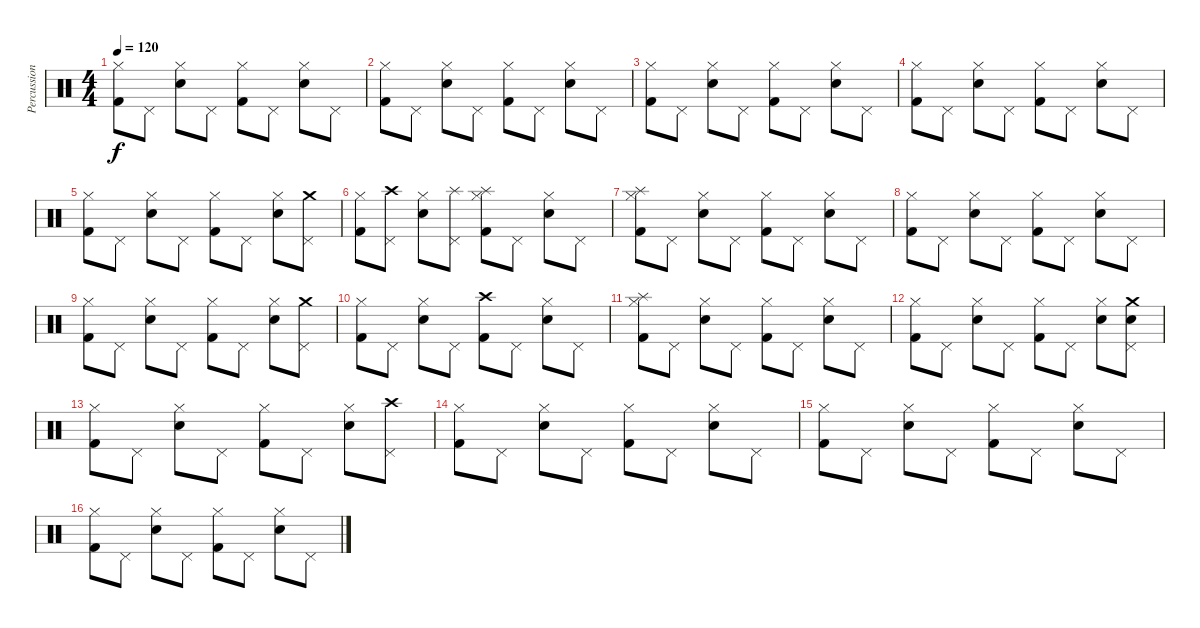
\track ("Percussion" "Percussion") {instrument percussion}
\staff {score}
\articulation defaults
\ts (4 4)
\tempo 120
\clef neutral
\ks c
("Kick (hit) 2" "Hi-Hat (closed)").8{dy f} "Pedal Hi-Hat (hit)".8 ("Snare (hit) 2" "Hi-Hat (closed)").8 "Pedal Hi-Hat (hit)".8 ("Kick (hit) 2" "Hi-Hat (closed)").8 "Pedal Hi-Hat (hit)".8 ("Snare (hit) 2" "Hi-Hat (closed)").8 "Pedal Hi-Hat (hit)".8 |
("Kick (hit) 2" "Hi-Hat (closed)").8 "Pedal Hi-Hat (hit)".8 ("Snare (hit) 2" "Hi-Hat (closed)").8 "Pedal Hi-Hat (hit)".8 ("Kick (hit) 2" "Hi-Hat (closed)").8 "Pedal Hi-Hat (hit)".8 ("Snare (hit) 2" "Hi-Hat (closed)").8 "Pedal Hi-Hat (hit)".8 |
("Kick (hit) 2" "Hi-Hat (closed)").8 "Pedal Hi-Hat (hit)".8 ("Snare (hit) 2" "Hi-Hat (closed)").8 "Pedal Hi-Hat (hit)".8 ("Kick (hit) 2" "Hi-Hat (closed)").8 "Pedal Hi-Hat (hit)".8 ("Snare (hit) 2" "Hi-Hat (closed)").8 "Pedal Hi-Hat (hit)".8 |
("Kick (hit) 2" "Hi-Hat (closed)").8 "Pedal Hi-Hat (hit)".8 ("Snare (hit) 2" "Hi-Hat (closed)").8 "Pedal Hi-Hat (hit)".8 ("Kick (hit) 2" "Hi-Hat (closed)").8 "Pedal Hi-Hat (hit)".8 ("Snare (hit) 2" "Hi-Hat (closed)").8 "Pedal Hi-Hat (hit)".8 |
("Kick (hit) 2" "Hi-Hat (closed)").8 "Pedal Hi-Hat (hit)".8 ("Snare (hit) 2" "Hi-Hat (closed)").8 "Pedal Hi-Hat (hit)".8 ("Kick (hit) 2" "Hi-Hat (closed)").8 "Pedal Hi-Hat (hit)".8 ("Snare (hit) 2" "Hi-Hat (closed)").8 ("Pedal Hi-Hat (hit)" "Crash medium (hit)").8 |
("Kick (hit) 2" "Hi-Hat (closed)").8 ("Pedal Hi-Hat (hit)" "Crash high (hit)").8 ("Snare (hit) 2" "Hi-Hat (closed)").8 ("Pedal Hi-Hat (hit)" "Splash (hit)").8 ("Kick (hit) 2" "Hi-Hat (closed)" "Splash (hit)").8 "Pedal Hi-Hat (hit)".8 ("Snare (hit) 2" "Hi-Hat (closed)").8 "Pedal Hi-Hat (hit)".8 |
("Kick (hit) 2" "Hi-Hat (closed)" "Splash (hit)").8 "Pedal Hi-Hat (hit)".8 ("Snare (hit) 2" "Hi-Hat (closed)").8 "Pedal Hi-Hat (hit)".8 ("Kick (hit) 2" "Hi-Hat (closed)").8 "Pedal Hi-Hat (hit)".8 ("Snare (hit) 2" "Hi-Hat (closed)").8 "Pedal Hi-Hat (hit)".8 |
("Kick (hit) 2" "Hi-Hat (closed)").8 "Pedal Hi-Hat (hit)".8 ("Snare (hit) 2" "Hi-Hat (closed)").8 "Pedal Hi-Hat (hit)".8 ("Kick (hit) 2" "Hi-Hat (closed)").8 "Pedal Hi-Hat (hit)".8 ("Snare (hit) 2" "Hi-Hat (closed)").8 "Pedal Hi-Hat (hit)".8 |
("Kick (hit) 2" "Hi-Hat (closed)").8 "Pedal Hi-Hat (hit)".8 ("Snare (hit) 2" "Hi-Hat (closed)").8 "Pedal Hi-Hat (hit)".8 ("Kick (hit) 2" "Hi-Hat (closed)").8 "Pedal Hi-Hat (hit)".8 ("Snare (hit) 2" "Hi-Hat (closed)").8 ("Pedal Hi-Hat (hit)" "Crash medium (hit)").8 |
("Kick (hit) 2" "Hi-Hat (closed)").8 "Pedal Hi-Hat (hit)".8 ("Snare (hit) 2" "Hi-Hat (closed)").8 "Pedal Hi-Hat (hit)".8 ("Kick (hit) 2" "Crash high (hit)").8 "Pedal Hi-Hat (hit)".8 ("Snare (hit) 2" "Hi-Hat (closed)").8 "Pedal Hi-Hat (hit)".8 |
("Kick (hit) 2" "Hi-Hat (closed)" "Splash (hit)").8 "Pedal Hi-Hat (hit)".8 ("Snare (hit) 2" "Hi-Hat (closed)").8 "Pedal Hi-Hat (hit)".8 ("Kick (hit) 2" "Hi-Hat (closed)").8 "Pedal Hi-Hat (hit)".8 ("Snare (hit) 2" "Hi-Hat (closed)").8 "Pedal Hi-Hat (hit)".8 |
("Kick (hit) 2" "Hi-Hat (closed)").8 "Pedal Hi-Hat (hit)".8 ("Snare (hit) 2" "Hi-Hat (closed)").8 "Pedal Hi-Hat (hit)".8 ("Kick (hit) 2" "Hi-Hat (closed)").8 "Pedal Hi-Hat (hit)".8 ("Snare (hit) 2" "Hi-Hat (closed)").8 ("Pedal Hi-Hat (hit)" "Crash medium (hit)" "Snare (hit) 2").8 |
("Kick (hit) 2" "Hi-Hat (closed)").8 "Pedal Hi-Hat (hit)".8 ("Snare (hit) 2" "Hi-Hat (closed)").8 "Pedal Hi-Hat (hit)".8 ("Kick (hit) 2" "Hi-Hat (closed)").8 "Pedal Hi-Hat (hit)".8 ("Snare (hit) 2" "Hi-Hat (closed)").8 ("Pedal Hi-Hat (hit)" "Crash high (hit)").8 |
("Kick (hit) 2" "Hi-Hat (closed)").8 "Pedal Hi-Hat (hit)".8 ("Snare (hit) 2" "Hi-Hat (closed)").8 "Pedal Hi-Hat (hit)".8 ("Kick (hit) 2" "Hi-Hat (closed)").8 "Pedal Hi-Hat (hit)".8 ("Snare (hit) 2" "Hi-Hat (closed)").8 "Pedal Hi-Hat (hit)".8 |
("Kick (hit) 2" "Hi-Hat (closed)").8 "Pedal Hi-Hat (hit)".8 ("Snare (hit) 2" "Hi-Hat (closed)").8 "Pedal Hi-Hat (hit)".8 ("Kick (hit) 2" "Hi-Hat (closed)").8 "Pedal Hi-Hat (hit)".8 ("Snare (hit) 2" "Hi-Hat (closed)").8 "Pedal Hi-Hat (hit)".8 |
("Kick (hit) 2" "Hi-Hat (closed)").8 "Pedal Hi-Hat (hit)".8 ("Snare (hit) 2" "Hi-Hat (closed)").8 "Pedal Hi-Hat (hit)".8 ("Kick (hit) 2" "Hi-Hat (closed)").8 "Pedal Hi-Hat (hit)".8 ("Snare (hit) 2" "Hi-Hat (closed)").8 "Pedal Hi-Hat (hit)".8
